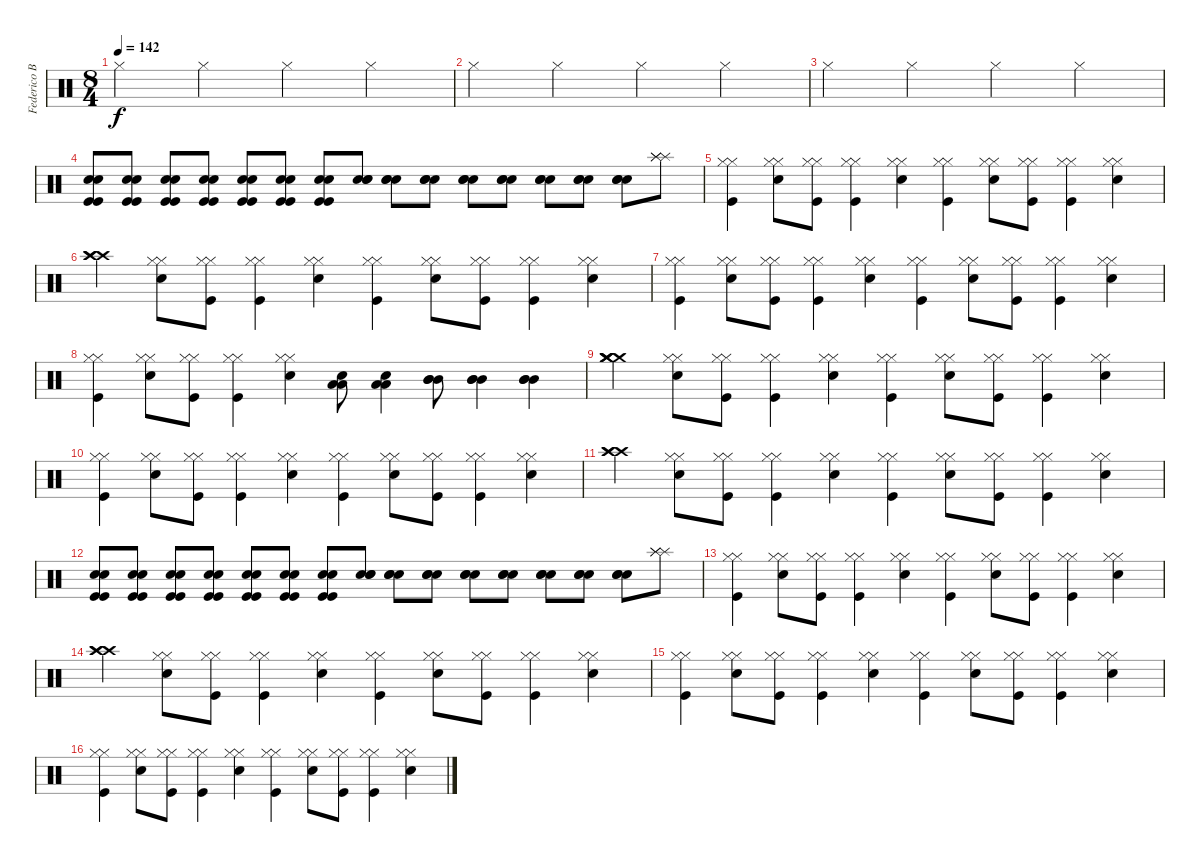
\track ("Federico Bogliaccino-Drums" "Federico B") {instrument percussion}
\staff {score}
\articulation defaults
\ts (8 4)
\tempo 142
\clef neutral
\ks c "Hi-Hat (closed)".2{dy f} "Hi-Hat (closed)".2 "Hi-Hat (closed)".2 "Hi-Hat (closed)".2
|
"Hi-Hat (closed)".2 "Hi-Hat (closed)".2 "Hi-Hat (closed)".2 "Hi-Hat (closed)".2 |
"Hi-Hat (closed)".2 "Hi-Hat (closed)".2 "Hi-Hat (closed)".2 "Hi-Hat (closed)".2 |
("Kick (hit)" "Kick (hit)" "Snare (hit) 2" "Snare (hit) 2").8 ("Kick (hit)" "Kick (hit)" "Snare (hit) 2" "Snare (hit) 2").8 ("Kick (hit)" "Kick (hit)" "Snare (hit) 2" "Snare (hit) 2").8 ("Kick (hit)" "Kick (hit)" "Snare (hit) 2" "Snare (hit) 2").8 ("Kick (hit)" "Kick (hit)" "Snare (hit) 2" "Snare (hit) 2").8 ("Kick (hit)" "Kick (hit)" "Snare (hit) 2" "Snare (hit) 2").8 ("Kick (hit)" "Kick (hit)" "Snare (hit) 2" "Snare (hit) 2").8 ("Hand Clap (hit)" "Snare (hit) 2" "Snare (hit) 2").8 ("Hand Clap (hit)" "Snare (hit) 2" "Snare (hit) 2").8 ("Hand Clap (hit)" "Snare (hit) 2" "Snare (hit) 2").8 ("Hand Clap (hit)" "Snare (hit) 2" "Snare (hit) 2").8 ("Hand Clap (hit)" "Snare (hit) 2" "Snare (hit) 2").8 ("Hand Clap (hit)" "Snare (hit) 2" "Snare (hit) 2").8 ("Hand Clap (hit)" "Snare (hit) 2" "Snare (hit) 2").8 ("Hand Clap (hit)" "Snare (hit) 2" "Snare (hit) 2").8 ("Splash (hit)" "Splash (hit)" "Splash (hit)").8 |
("Hi-Hat (closed)" "Hi-Hat (closed)" "Kick (hit)").4 ("Hi-Hat (closed)" "Hi-Hat (closed)" "Snare (hit) 2").8 ("Hi-Hat (closed)" "Hi-Hat (closed)" "Kick (hit)").8 ("Hi-Hat (closed)" "Hi-Hat (closed)" "Kick (hit)").4 ("Hi-Hat (closed)" "Hi-Hat (closed)" "Snare (hit) 2").4 ("Hi-Hat (closed)" "Hi-Hat (closed)" "Kick (hit)").4 ("Hi-Hat (closed)" "Hi-Hat (closed)" "Snare (hit) 2").8 ("Hi-Hat (closed)" "Hi-Hat (closed)" "Kick (hit)").8 ("Hi-Hat (closed)" "Hi-Hat (closed)" "Kick (hit)").4 ("Hi-Hat (closed)" "Hi-Hat (closed)" "Snare (hit) 2").4 |
("Crash high (hit)" "Crash high (hit)" "Crash high (hit)").4 ("Hi-Hat (closed)" "Hi-Hat (closed)" "Snare (hit) 2").8 ("Hi-Hat (closed)" "Hi-Hat (closed)" "Kick (hit)").8 ("Hi-Hat (closed)" "Hi-Hat (closed)" "Kick (hit)").4 ("Hi-Hat (closed)" "Hi-Hat (closed)" "Snare (hit) 2").4 ("Hi-Hat (closed)" "Hi-Hat (closed)" "Kick (hit)").4 ("Hi-Hat (closed)" "Hi-Hat (closed)" "Snare (hit) 2").8 ("Hi-Hat (closed)" "Hi-Hat (closed)" "Kick (hit)").8 ("Hi-Hat (closed)" "Hi-Hat (closed)" "Kick (hit)").4 ("Hi-Hat (closed)" "Hi-Hat (closed)" "Snare (hit) 2").4 |
("Hi-Hat (closed)" "Hi-Hat (closed)" "Kick (hit)").4 ("Hi-Hat (closed)" "Hi-Hat (closed)" "Snare (hit) 2").8 ("Hi-Hat (closed)" "Hi-Hat (closed)" "Kick (hit)").8 ("Hi-Hat (closed)" "Hi-Hat (closed)" "Kick (hit)").4 ("Hi-Hat (closed)" "Hi-Hat (closed)" "Snare (hit) 2").4 ("Hi-Hat (closed)" "Hi-Hat (closed)" "Kick (hit)").4 ("Hi-Hat (closed)" "Hi-Hat (closed)" "Snare (hit) 2").8 ("Hi-Hat (closed)" "Hi-Hat (closed)" "Kick (hit)").8 ("Hi-Hat (closed)" "Hi-Hat (closed)" "Kick (hit)").4 ("Hi-Hat (closed)" "Hi-Hat (closed)" "Snare (hit) 2").4 |
("Hi-Hat (closed)" "Hi-Hat (closed)" "Kick (hit)").4 ("Hi-Hat (closed)" "Hi-Hat (closed)" "Snare (hit) 2").8 ("Hi-Hat (closed)" "Hi-Hat (closed)" "Kick (hit)").8 ("Hi-Hat (closed)" "Hi-Hat (closed)" "Kick (hit)").4 ("Hi-Hat (closed)" "Hi-Hat (closed)" "Snare (hit) 2").4 ("Snare (hit) 2" "Low Floor Tom (hit)" "Low Floor Tom (hit)").8 ("Snare (hit) 2" "Low Floor Tom (hit)" "Low Floor Tom (hit)").4 ("Mid Tom (hit)" "Mid Tom (hit)" "Mid Tom (hit)").8 ("Mid Tom (hit)" "Mid Tom (hit)" "Mid Tom (hit)").4 ("Mid Tom (hit)" "Mid Tom (hit)" "Mid Tom (hit)").4 |
("Crash medium (hit)" "Crash medium (hit)" "Crash medium (hit)" "Crash medium (hit)").4 ("Hi-Hat (closed)" "Hi-Hat (closed)" "Snare (hit) 2").8 ("Hi-Hat (closed)" "Hi-Hat (closed)" "Kick (hit)").8 ("Hi-Hat (closed)" "Hi-Hat (closed)" "Kick (hit)").4 ("Hi-Hat (closed)" "Hi-Hat (closed)" "Snare (hit) 2").4 ("Hi-Hat (closed)" "Hi-Hat (closed)" "Kick (hit)").4 ("Hi-Hat (closed)" "Hi-Hat (closed)" "Snare (hit) 2").8 ("Hi-Hat (closed)" "Hi-Hat (closed)" "Kick (hit)").8 ("Hi-Hat (closed)" "Hi-Hat (closed)" "Kick (hit)").4 ("Hi-Hat (closed)" "Hi-Hat (closed)" "Snare (hit) 2").4 |
("Hi-Hat (closed)" "Hi-Hat (closed)" "Kick (hit)").4 ("Hi-Hat (closed)" "Hi-Hat (closed)" "Snare (hit) 2").8 ("Hi-Hat (closed)" "Hi-Hat (closed)" "Kick (hit)").8 ("Hi-Hat (closed)" "Hi-Hat (closed)" "Kick (hit)").4 ("Hi-Hat (closed)" "Hi-Hat (closed)" "Snare (hit) 2").4 ("Hi-Hat (closed)" "Hi-Hat (closed)" "Kick (hit)").4 ("Hi-Hat (closed)" "Hi-Hat (closed)" "Snare (hit) 2").8 ("Hi-Hat (closed)" "Hi-Hat (closed)" "Kick (hit)").8 ("Hi-Hat (closed)" "Hi-Hat (closed)" "Kick (hit)").4 ("Hi-Hat (closed)" "Hi-Hat (closed)" "Snare (hit) 2").4 |
("Crash high (hit)" "Crash high (hit)" "Crash high (hit)").4 ("Hi-Hat (closed)" "Hi-Hat (closed)" "Snare (hit) 2").8 ("Hi-Hat (closed)" "Hi-Hat (closed)" "Kick (hit)").8 ("Hi-Hat (closed)" "Hi-Hat (closed)" "Kick (hit)").4 ("Hi-Hat (closed)" "Hi-Hat (closed)" "Snare (hit) 2").4 ("Hi-Hat (closed)" "Hi-Hat (closed)" "Kick (hit)").4 ("Hi-Hat (closed)" "Hi-Hat (closed)" "Snare (hit) 2").8 ("Hi-Hat (closed)" "Hi-Hat (closed)" "Kick (hit)").8 ("Hi-Hat (closed)" "Hi-Hat (closed)" "Kick (hit)").4 ("Hi-Hat (closed)" "Hi-Hat (closed)" "Snare (hit) 2").4 |
("Kick (hit)" "Kick (hit)" "Snare (hit) 2" "Snare (hit) 2").8 ("Kick (hit)" "Kick (hit)" "Snare (hit) 2" "Snare (hit) 2").8 ("Kick (hit)" "Kick (hit)" "Snare (hit) 2" "Snare (hit) 2").8 ("Kick (hit)" "Kick (hit)" "Snare (hit) 2" "Snare (hit) 2").8 ("Kick (hit)" "Kick (hit)" "Snare (hit) 2" "Snare (hit) 2").8 ("Kick (hit)" "Kick (hit)" "Snare (hit) 2" "Snare (hit) 2").8 ("Kick (hit)" "Kick (hit)" "Snare (hit) 2" "Snare (hit) 2").8 ("Hand Clap (hit)" "Snare (hit) 2" "Snare (hit) 2").8 ("Hand Clap (hit)" "Snare (hit) 2" "Snare (hit) 2").8 ("Hand Clap (hit)" "Snare (hit) 2" "Snare (hit) 2").8 ("Hand Clap (hit)" "Snare (hit) 2" "Snare (hit) 2").8 ("Hand Clap (hit)" "Snare (hit) 2" "Snare (hit) 2").8 ("Hand Clap (hit)" "Snare (hit) 2" "Snare (hit) 2").8 ("Hand Clap (hit)" "Snare (hit) 2" "Snare (hit) 2").8 ("Hand Clap (hit)" "Snare (hit) 2" "Snare (hit) 2").8 ("Splash (hit)" "Splash (hit)" "Splash (hit)").8 |
("Hi-Hat (closed)" "Hi-Hat (closed)" "Kick (hit)").4 ("Hi-Hat (closed)" "Hi-Hat (closed)" "Snare (hit) 2").8 ("Hi-Hat (closed)" "Hi-Hat (closed)" "Kick (hit)").8 ("Hi-Hat (closed)" "Hi-Hat (closed)" "Kick (hit)").4 ("Hi-Hat (closed)" "Hi-Hat (closed)" "Snare (hit) 2").4 ("Hi-Hat (closed)" "Hi-Hat (closed)" "Kick (hit)").4 ("Hi-Hat (closed)" "Hi-Hat (closed)" "Snare (hit) 2").8 ("Hi-Hat (closed)" "Hi-Hat (closed)" "Kick (hit)").8 ("Hi-Hat (closed)" "Hi-Hat (closed)" "Kick (hit)").4 ("Hi-Hat (closed)" "Hi-Hat (closed)" "Snare (hit) 2").4 |
("Crash high (hit)" "Crash high (hit)" "Crash high (hit)").4 ("Hi-Hat (closed)" "Hi-Hat (closed)" "Snare (hit) 2").8 ("Hi-Hat (closed)" "Hi-Hat (closed)" "Kick (hit)").8 ("Hi-Hat (closed)" "Hi-Hat (closed)" "Kick (hit)").4 ("Hi-Hat (closed)" "Hi-Hat (closed)" "Snare (hit) 2").4 ("Hi-Hat (closed)" "Hi-Hat (closed)" "Kick (hit)").4 ("Hi-Hat (closed)" "Hi-Hat (closed)" "Snare (hit) 2").8 ("Hi-Hat (closed)" "Hi-Hat (closed)" "Kick (hit)").8 ("Hi-Hat (closed)" "Hi-Hat (closed)" "Kick (hit)").4 ("Hi-Hat (closed)" "Hi-Hat (closed)" "Snare (hit) 2").4 |
("Hi-Hat (closed)" "Hi-Hat (closed)" "Kick (hit)").4 ("Hi-Hat (closed)" "Hi-Hat (closed)" "Snare (hit) 2").8 ("Hi-Hat (closed)" "Hi-Hat (closed)" "Kick (hit)").8 ("Hi-Hat (closed)" "Hi-Hat (closed)" "Kick (hit)").4 ("Hi-Hat (closed)" "Hi-Hat (closed)" "Snare (hit) 2").4 ("Hi-Hat (closed)" "Hi-Hat (closed)" "Kick (hit)").4 ("Hi-Hat (closed)" "Hi-Hat (closed)" "Snare (hit) 2").8 ("Hi-Hat (closed)" "Hi-Hat (closed)" "Kick (hit)").8 ("Hi-Hat (closed)" "Hi-Hat (closed)" "Kick (hit)").4 ("Hi-Hat (closed)" "Hi-Hat (closed)" "Snare (hit) 2").4 |
("Hi-Hat (closed)" "Hi-Hat (closed)" "Kick (hit)").4 ("Hi-Hat (closed)" "Hi-Hat (closed)" "Snare (hit) 2").8 ("Hi-Hat (closed)" "Hi-Hat (closed)" "Kick (hit)").8 ("Hi-Hat (closed)" "Hi-Hat (closed)" "Kick (hit)").4 ("Hi-Hat (closed)" "Hi-Hat (closed)" "Snare (hit) 2").4 ("Hi-Hat (closed)" "Hi-Hat (closed)" "Kick (hit)").4 ("Hi-Hat (closed)" "Hi-Hat (closed)" "Snare (hit) 2").8 ("Hi-Hat (closed)" "Hi-Hat (closed)" "Kick (hit)").8 ("Hi-Hat (closed)" "Hi-Hat (closed)" "Kick (hit)").4 ("Hi-Hat (closed)" "Hi-Hat (closed)" "Snare (hit) 2").4
